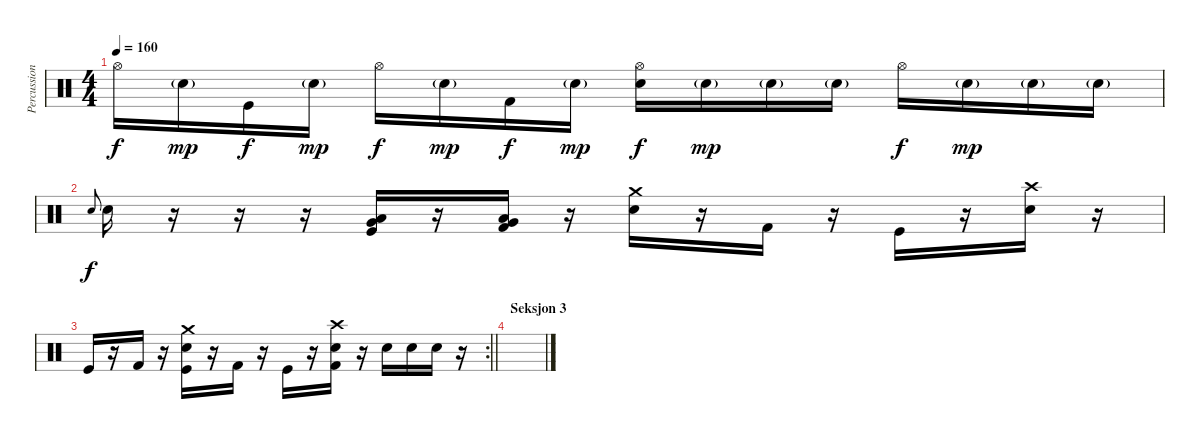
\track ("Percussion" "Percussion") {instrument percussion}
\staff {score}
\articulation defaults
\ts (4 4)
\tempo 160
\clef neutral
\ks c "Hi-Hat (open)".16{dy f} "Snare (hit) 2"{g}.16{dy mp} "Kick (hit)".16{dy f} "Snare (hit) 2"{g}.16{dy mp} "Hi-Hat (open)".16{dy f} "Snare (hit) 2"{g}.16{dy mp} "Kick (hit) 2".16{dy f} "Snare (hit) 2"{g}.16{dy mp}
("Hi-Hat (open)" "Snare (hit) 2").16{dy f} "Snare (hit) 2"{g}.16{dy mp} "Snare (hit) 2"{g}.16 "Snare (hit) 2"{g}.16 "Hi-Hat (open)".16{dy f} "Snare (hit) 2"{g}.16{dy mp} "Snare (hit) 2"{g}.16 "Snare (hit) 2"{g}.16 |
"Snare (hit) 2".8{gr onbeat dy f} "Snare (hit) 2".16 r.16 r.16 r.16 ("Very Low Tom (hit)" "Low Floor Tom (hit)" "Kick (hit)").16 r.16 ("Very Low Tom (hit)" "Low Floor Tom (hit)" "Kick (hit) 2").16 r.16 ("Crash medium (hit)" "Snare (hit) 2").16 r.16 "Kick (hit) 2".16 r.16 "Kick (hit)".16 r.16 ("Crash high (hit)" "Snare (hit) 2").16 r.16 |
\rc 2
\barLineRight lightlight "Kick (hit)".16
r.16 "Kick (hit) 2".16 r.16 ("Crash medium (hit)" "Snare (hit) 2" "Kick (hit)").16 r.16 "Kick (hit) 2".16 r.16 "Kick (hit)".16 r.16 ("Crash high (hit)" "Snare (hit) 2" "Kick (hit) 2").16 r.16 "Snare (hit) 2".16 "Snare (hit) 2".16 "Snare (hit) 2".16 r.16 |
\section ("" "Seksjon 3")
